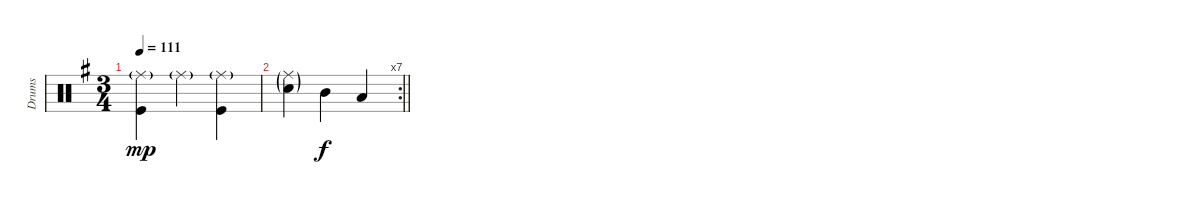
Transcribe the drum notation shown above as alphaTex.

\track ("Drums" "Drums") {instrument percussion}
\staff
\articulation defaults
\ts (3 4)
\tempo 111
\clef neutral
\ks eminor
("Ride (middle)"{g} "Kick (hit)").4{dy mp} "Ride (middle)"{g}.4 ("Ride (middle)"{g} "Kick (hit)").4 |
\rc 7
\barLineRight lightlight
("Ride (middle)"{g} "Electric Snare (hit)"{g}).4 "Mid Tom (hit)".4{dy f} "Low Tom (hit)".4
